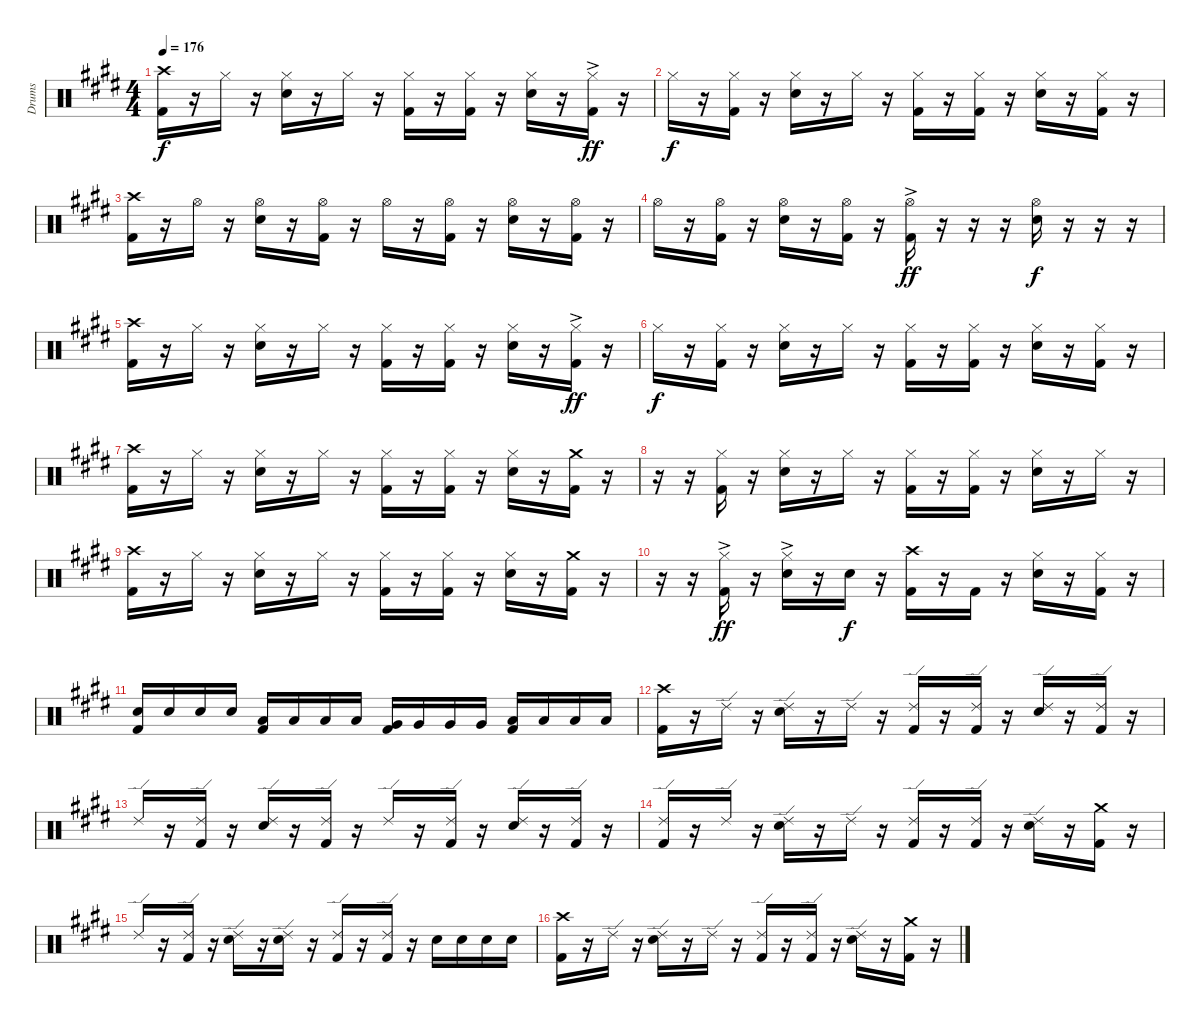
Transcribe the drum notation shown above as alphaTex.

\track ("Drums" "Drums") {instrument percussion}
\staff {score}
\articulation defaults
\ts (4 4)
\tempo 176
\clef neutral
\ks e
("Crash high (hit)" "Kick (hit) 2").16{dy f} r.16 "Hi-Hat (closed)".16 r.16 ("Hi-Hat (closed)" "Electric Snare (hit)").16 r.16 "Hi-Hat (closed)".16 r.16 ("Hi-Hat (closed)" "Kick (hit) 2").16 r.16 ("Hi-Hat (closed)" "Kick (hit) 2").16 r.16 ("Hi-Hat (closed)" "Electric Snare (hit)").16 r.16 ("Hi-Hat (closed)"{ac} "Kick (hit) 2").16{dy ff} r.16 |
"Hi-Hat (closed)".16{dy f} r.16 ("Hi-Hat (closed)" "Kick (hit) 2").16 r.16 ("Hi-Hat (closed)" "Electric Snare (hit)").16 r.16 "Hi-Hat (closed)".16 r.16 ("Hi-Hat (closed)" "Kick (hit) 2").16 r.16 ("Hi-Hat (closed)" "Kick (hit) 2").16 r.16 ("Hi-Hat (closed)" "Electric Snare (hit)").16 r.16 ("Hi-Hat (closed)" "Kick (hit) 2").16 r.16 |
("Crash high (hit)" "Kick (hit) 2").16 r.16 "Hi-Hat (open)".16 r.16 ("Hi-Hat (open)" "Electric Snare (hit)").16 r.16 ("Hi-Hat (open)" "Kick (hit) 2").16 r.16 "Hi-Hat (open)".16 r.16 ("Hi-Hat (open)" "Kick (hit) 2").16 r.16 ("Hi-Hat (open)" "Electric Snare (hit)").16 r.16 ("Hi-Hat (open)" "Kick (hit) 2").16 r.16 |
"Hi-Hat (open)".16 r.16 ("Hi-Hat (open)" "Kick (hit) 2").16 r.16 ("Hi-Hat (open)" "Electric Snare (hit)").16 r.16 ("Hi-Hat (open)" "Kick (hit) 2").16 r.16 ("Hi-Hat (open)"{ac} "Kick (hit) 2").16{dy ff} r.16 r.16 r.16 ("Hi-Hat (open)" "Electric Snare (hit)").16{dy f} r.16 r.16 r.16 |
("Crash high (hit)" "Kick (hit) 2").16 r.16 "Hi-Hat (closed)".16 r.16 ("Hi-Hat (closed)" "Electric Snare (hit)").16 r.16 "Hi-Hat (closed)".16 r.16 ("Hi-Hat (closed)" "Kick (hit) 2").16 r.16 ("Hi-Hat (closed)" "Kick (hit) 2").16 r.16 ("Hi-Hat (closed)" "Electric Snare (hit)").16 r.16 ("Hi-Hat (closed)"{ac} "Kick (hit) 2").16{dy ff} r.16 |
"Hi-Hat (closed)".16{dy f} r.16 ("Hi-Hat (closed)" "Kick (hit) 2").16 r.16 ("Hi-Hat (closed)" "Electric Snare (hit)").16 r.16 "Hi-Hat (closed)".16 r.16 ("Hi-Hat (closed)" "Kick (hit) 2").16 r.16 ("Hi-Hat (closed)" "Kick (hit) 2").16 r.16 ("Hi-Hat (closed)" "Electric Snare (hit)").16 r.16 ("Hi-Hat (closed)" "Kick (hit) 2").16 r.16 |
("Crash high (hit)" "Kick (hit) 2").16 r.16 "Hi-Hat (closed)".16 r.16 ("Hi-Hat (closed)" "Electric Snare (hit)").16 r.16 "Hi-Hat (closed)".16 r.16 ("Hi-Hat (closed)" "Kick (hit) 2").16 r.16 ("Hi-Hat (closed)" "Kick (hit) 2").16 r.16 ("Hi-Hat (closed)" "Electric Snare (hit)").16 r.16 ("Crash medium (hit)" "Kick (hit) 2").16 r.16 |
r.16 r.16 ("Hi-Hat (closed)" "Kick (hit) 2").16 r.16 ("Hi-Hat (closed)" "Electric Snare (hit)").16 r.16 "Hi-Hat (closed)".16 r.16 ("Hi-Hat (closed)" "Kick (hit) 2").16 r.16 ("Hi-Hat (closed)" "Kick (hit) 2").16 r.16 ("Hi-Hat (closed)" "Electric Snare (hit)").16 r.16 "Hi-Hat (closed)".16 r.16 |
("Crash high (hit)" "Kick (hit) 2").16 r.16 "Hi-Hat (closed)".16 r.16 ("Hi-Hat (closed)" "Electric Snare (hit)").16 r.16 "Hi-Hat (closed)".16 r.16 ("Hi-Hat (closed)" "Kick (hit) 2").16 r.16 ("Hi-Hat (closed)" "Kick (hit) 2").16 r.16 ("Hi-Hat (closed)" "Electric Snare (hit)").16 r.16 ("Crash medium (hit)" "Kick (hit) 2").16 r.16 |
r.16 r.16 ("Hi-Hat (closed)"{ac} "Kick (hit) 2").16{dy ff} r.16 ("Hi-Hat (closed)"{ac} "Electric Snare (hit)").16 r.16 "Electric Snare (hit)".16{dy f} r.16 ("Crash high (hit)" "Kick (hit) 2").16 r.16 "Kick (hit) 2".16 r.16 ("Hi-Hat (closed)" "Electric Snare (hit)").16 r.16 ("Hi-Hat (closed)" "Kick (hit) 2").16 r.16 |
("Electric Snare (hit)" "Kick (hit) 2").16 "Electric Snare (hit)".16 "Electric Snare (hit)".16 "Electric Snare (hit)".16 ("Low Tom (hit)" "Kick (hit) 2").16 "Low Tom (hit)".16 "Low Tom (hit)".16 "Low Tom (hit)".16 ("Very Low Tom (hit)" "Kick (hit) 2").16 "Very Low Tom (hit)".16 "Very Low Tom (hit)".16 "Very Low Tom (hit)".16 ("Low Floor Tom (hit)" "Kick (hit) 2").16 "Low Floor Tom (hit)".16 "Low Floor Tom (hit)".16 "Low Floor Tom (hit)".16 |
("Crash high (hit)" "Kick (hit) 2").16 r.16 "Ride (edge) 2".16 r.16 ("Ride (edge) 2" "Electric Snare (hit)").16 r.16 "Ride (edge) 2".16 r.16 ("Ride (edge) 2" "Kick (hit) 2").16 r.16 ("Ride (edge) 2" "Kick (hit) 2").16 r.16 ("Ride (edge) 2" "Electric Snare (hit)").16 r.16 ("Ride (edge) 2" "Kick (hit) 2").16 r.16 |
"Ride (edge) 2".16 r.16 ("Ride (edge) 2" "Kick (hit) 2").16 r.16 ("Ride (edge) 2" "Electric Snare (hit)").16 r.16 ("Ride (edge) 2" "Kick (hit) 2").16 r.16 "Ride (edge) 2".16 r.16 ("Ride (edge) 2" "Kick (hit) 2").16 r.16 ("Ride (edge) 2" "Electric Snare (hit)").16 r.16 ("Ride (edge) 2" "Kick (hit) 2").16 r.16 |
("Ride (edge) 2" "Kick (hit) 2").16 r.16 "Ride (edge) 2".16 r.16 ("Ride (edge) 2" "Electric Snare (hit)").16 r.16 "Ride (edge) 2".16 r.16 ("Ride (edge) 2" "Kick (hit) 2").16 r.16 ("Ride (edge) 2" "Kick (hit) 2").16 r.16 ("Ride (edge) 2" "Electric Snare (hit)").16 r.16 ("Crash medium (hit)" "Kick (hit) 2").16 r.16 |
"Ride (edge) 2".16 r.16 ("Ride (edge) 2" "Kick (hit) 2").16 r.16 ("Ride (edge) 2" "Electric Snare (hit)").16 r.16 ("Ride (edge) 2" "Electric Snare (hit)").16 r.16 ("Ride (edge) 2" "Kick (hit) 2").16 r.16 ("Ride (edge) 2" "Kick (hit) 2").16 r.16 "Electric Snare (hit)".16 "Electric Snare (hit)".16 "Electric Snare (hit)".16 "Electric Snare (hit)".16 |
("Crash high (hit)" "Kick (hit) 2").16 r.16 "Ride (edge) 2".16 r.16 ("Ride (edge) 2" "Electric Snare (hit)").16 r.16 "Ride (edge) 2".16 r.16 ("Ride (edge) 2" "Kick (hit) 2").16 r.16 ("Ride (edge) 2" "Kick (hit) 2").16 r.16 ("Ride (edge) 2" "Electric Snare (hit)").16 r.16 ("Crash medium (hit)" "Kick (hit) 2").16 r.16
